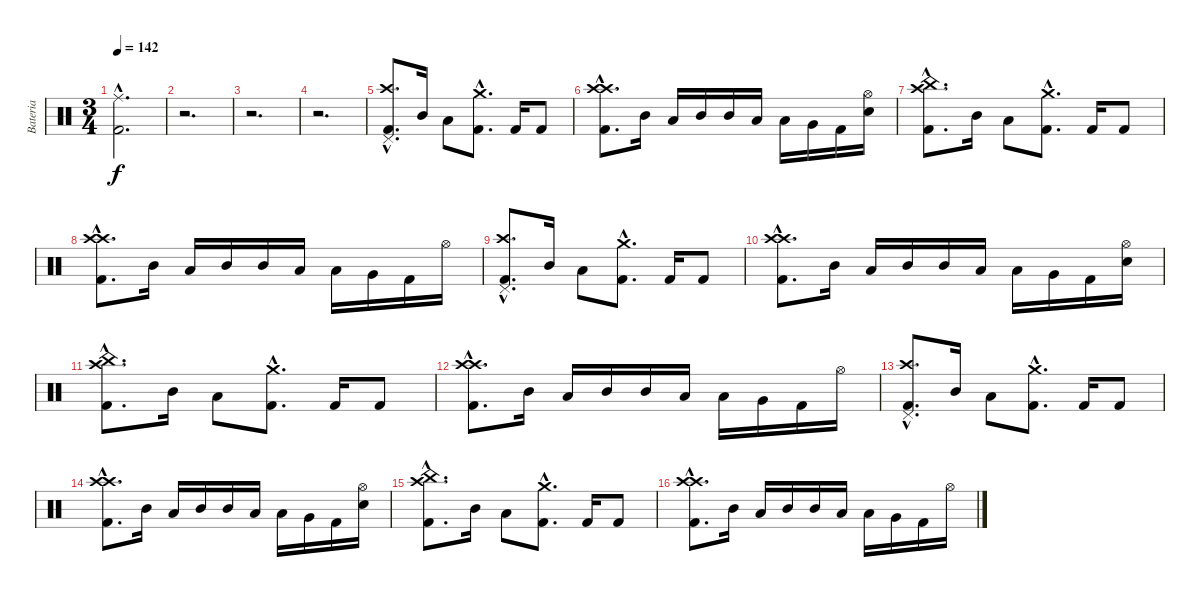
\track ("Bateria" "Bateria") {instrument percussion}
\staff {score}
\articulation defaults
\ts (3 4)
\tempo 142
\clef neutral
\ks c
("Ride (middle)"{hac} "Kick (hit) 2"{hac}).2{d dy f} |
r.2{d} |
r.2{d} |
r.2{d} |
("Crash high (hit)"{hac} "Pedal Hi-Hat (hit)"{hac} "Kick (hit) 2"{hac}).8{d} "Mid Tom (hit)".16 "Low Tom (hit)".8 ("Crash medium (hit)"{hac} "Kick (hit) 2"{hac}).8{d} "Kick (hit) 2".16 "Kick (hit) 2".8 |
("Crash high (hit)"{hac} "Crash high (hit)"{hac} "Kick (hit) 2"{hac}).8{d} "Mid Tom (hit)".16 "Low Tom (hit)".16 "Mid Tom (hit)".16 "Mid Tom (hit)".16 "Low Tom (hit)".16 "Low Tom (hit)".16 "Very Low Tom (hit)".16 "Kick (hit) 2".16 ("Hi-Hat (open)" "Snare (hit) 2").16 |
("Crash high (hit)"{hac} "China (hit)"{hac} "Kick (hit) 2"{hac}).8{d} "Mid Tom (hit)".16 "Low Tom (hit)".8 ("Crash medium (hit)"{hac} "Kick (hit) 2"{hac}).8{d} "Kick (hit) 2".16 "Kick (hit) 2".8 |
("Crash high (hit)"{hac} "Crash high (hit)"{hac} "Kick (hit) 2"{hac}).8{d} "Mid Tom (hit)".16 "Low Tom (hit)".16 "Mid Tom (hit)".16 "Mid Tom (hit)".16 "Low Tom (hit)".16 "Low Tom (hit)".16 "Very Low Tom (hit)".16 "Kick (hit) 2".16 "Hi-Hat (open)".16 |
("Crash high (hit)"{hac} "Pedal Hi-Hat (hit)"{hac} "Kick (hit) 2"{hac}).8{d} "Mid Tom (hit)".16 "Low Tom (hit)".8 ("Crash medium (hit)"{hac} "Kick (hit) 2"{hac}).8{d} "Kick (hit) 2".16 "Kick (hit) 2".8 |
("Crash high (hit)"{hac} "Crash high (hit)"{hac} "Kick (hit) 2"{hac}).8{d} "Mid Tom (hit)".16 "Low Tom (hit)".16 "Mid Tom (hit)".16 "Mid Tom (hit)".16 "Low Tom (hit)".16 "Low Tom (hit)".16 "Very Low Tom (hit)".16 "Kick (hit) 2".16 ("Hi-Hat (open)" "Snare (hit) 2").16 |
("Crash high (hit)"{hac} "China (hit)"{hac} "Kick (hit) 2"{hac}).8{d} "Mid Tom (hit)".16 "Low Tom (hit)".8 ("Crash medium (hit)"{hac} "Kick (hit) 2"{hac}).8{d} "Kick (hit) 2".16 "Kick (hit) 2".8 |
("Crash high (hit)"{hac} "Crash high (hit)"{hac} "Kick (hit) 2"{hac}).8{d} "Mid Tom (hit)".16 "Low Tom (hit)".16 "Mid Tom (hit)".16 "Mid Tom (hit)".16 "Low Tom (hit)".16 "Low Tom (hit)".16 "Very Low Tom (hit)".16 "Kick (hit) 2".16 "Hi-Hat (open)".16 |
("Crash high (hit)"{hac} "Pedal Hi-Hat (hit)"{hac} "Kick (hit) 2"{hac}).8{d} "Mid Tom (hit)".16 "Low Tom (hit)".8 ("Crash medium (hit)"{hac} "Kick (hit) 2"{hac}).8{d} "Kick (hit) 2".16 "Kick (hit) 2".8 |
("Crash high (hit)"{hac} "Crash high (hit)"{hac} "Kick (hit) 2"{hac}).8{d} "Mid Tom (hit)".16 "Low Tom (hit)".16 "Mid Tom (hit)".16 "Mid Tom (hit)".16 "Low Tom (hit)".16 "Low Tom (hit)".16 "Very Low Tom (hit)".16 "Kick (hit) 2".16 ("Hi-Hat (open)" "Snare (hit) 2").16 |
("Crash high (hit)"{hac} "China (hit)"{hac} "Kick (hit) 2"{hac}).8{d} "Mid Tom (hit)".16 "Low Tom (hit)".8 ("Crash medium (hit)"{hac} "Kick (hit) 2"{hac}).8{d} "Kick (hit) 2".16 "Kick (hit) 2".8 |
("Crash high (hit)"{hac} "Crash high (hit)"{hac} "Kick (hit) 2"{hac}).8{d} "Mid Tom (hit)".16 "Low Tom (hit)".16 "Mid Tom (hit)".16 "Mid Tom (hit)".16 "Low Tom (hit)".16 "Low Tom (hit)".16 "Very Low Tom (hit)".16 "Kick (hit) 2".16 "Hi-Hat (open)".16
